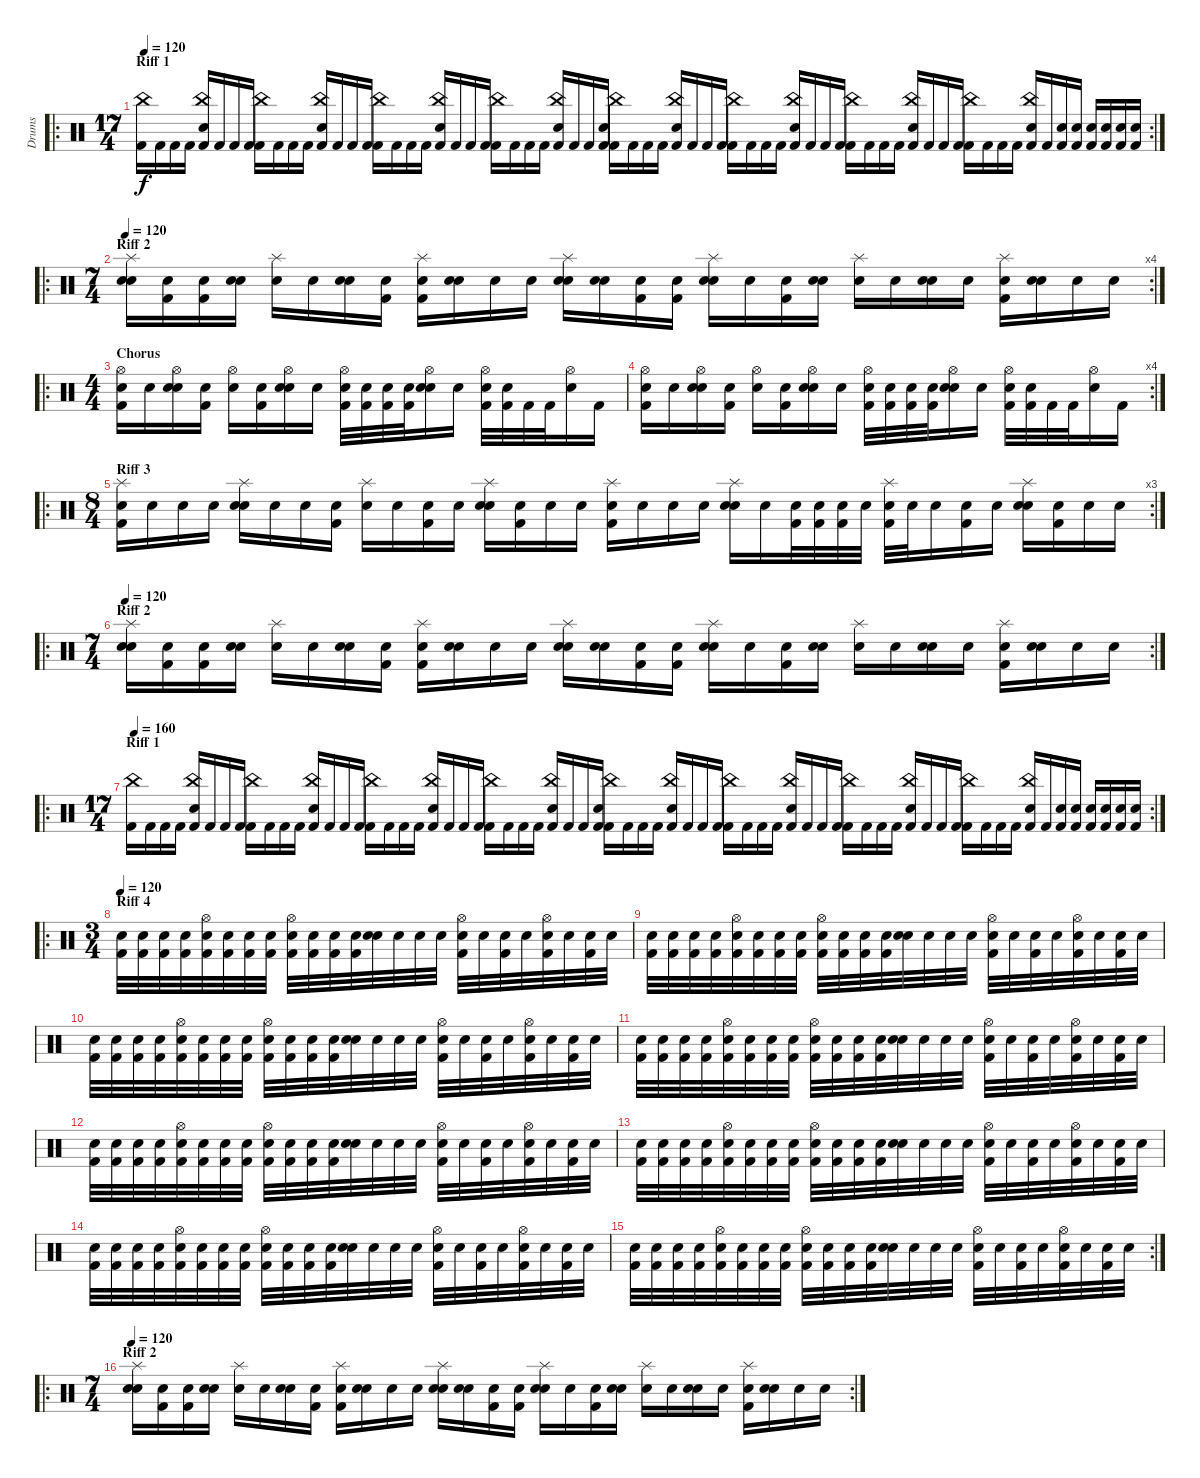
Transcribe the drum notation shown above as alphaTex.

\track ("Drums" "Drums") {instrument percussion}
\staff {score}
\articulation defaults
\ro
\rc 2
\ts (17 4)
\section ("" "Riff 1")
\tempo 120
\tempo 160
\tempo 120
\clef neutral
\ks c
("Kick (hit) 2" "China (hit)").16{dy f} "Kick (hit) 2".16 "Kick (hit) 2".16 "Kick (hit) 2".16 ("Kick (hit) 2" "Snare (hit) 2" "China (hit)").16 "Kick (hit) 2".16 "Kick (hit) 2".16 "Kick (hit) 2".16 ("Kick (hit) 2" "China (hit)").16 "Kick (hit) 2".16 "Kick (hit) 2".16 "Kick (hit) 2".16 ("Kick (hit) 2" "Snare (hit) 2" "China (hit)").16 "Kick (hit) 2".16 "Kick (hit) 2".16 "Kick (hit) 2".16 ("Kick (hit) 2" "China (hit)").16 "Kick (hit) 2".16 "Kick (hit) 2".16 "Kick (hit) 2".16 ("Kick (hit) 2" "Snare (hit) 2" "China (hit)").16 "Kick (hit) 2".16 "Kick (hit) 2".16 "Kick (hit) 2".16 ("Kick (hit) 2" "China (hit)").16 "Kick (hit) 2".16 "Kick (hit) 2".16 "Kick (hit) 2".16 ("Kick (hit) 2" "Snare (hit) 2" "China (hit)").16 "Kick (hit) 2".16 "Kick (hit) 2".16 ("Kick (hit) 2" "Snare (hit) 2").16 ("Kick (hit) 2" "China (hit)").16 "Kick (hit) 2".16 "Kick (hit) 2".16 "Kick (hit) 2".16 ("Kick (hit) 2" "Snare (hit) 2" "China (hit)").16 "Kick (hit) 2".16 "Kick (hit) 2".16 "Kick (hit) 2".16 ("Kick (hit) 2" "China (hit)").16 "Kick (hit) 2".16 "Kick (hit) 2".16 "Kick (hit) 2".16 ("Kick (hit) 2" "Snare (hit) 2" "China (hit)").16 "Kick (hit) 2".16 "Kick (hit) 2".16 "Kick (hit) 2".16 ("Kick (hit) 2" "China (hit)").16 "Kick (hit) 2".16 "Kick (hit) 2".16 "Kick (hit) 2".16 ("Kick (hit) 2" "Snare (hit) 2" "China (hit)").16 "Kick (hit) 2".16 "Kick (hit) 2".16 "Kick (hit) 2".16 ("Kick (hit) 2" "China (hit)").16 "Kick (hit) 2".16 "Kick (hit) 2".16 "Kick (hit) 2".16 ("Kick (hit) 2" "Snare (hit) 2" "China (hit)").16 "Kick (hit) 2".16 ("Kick (hit) 2" "Snare (hit) 2").16 ("Kick (hit) 2" "Snare (hit) 2").16 ("Kick (hit) 2" "Snare (hit) 2").16 ("Kick (hit) 2" "Snare (hit) 2").16 ("Kick (hit) 2" "Snare (hit) 2").16 ("Kick (hit) 2" "Snare (hit) 2").16 |
\ro
\rc 4
\ts (7 4)
\section ("" "Riff 2")
\tempo 120
("Snare (hit)" "Splash (hit)" "Snare (hit) 2").16 ("Snare (hit)" "Kick (hit) 2").16 ("Snare (hit)" "Kick (hit) 2").16 ("Snare (hit)" "Snare (hit) 2").16 ("Snare (hit)" "Splash (hit)").16 "Snare (hit)".16 ("Snare (hit)" "Snare (hit) 2").16 ("Snare (hit)" "Kick (hit) 2").16 ("Snare (hit)" "Splash (hit)" "Kick (hit) 2").16 ("Snare (hit)" "Snare (hit) 2").16 "Snare (hit)".16 "Snare (hit)".16 ("Snare (hit)" "Splash (hit)" "Snare (hit) 2").16 ("Snare (hit)" "Snare (hit) 2").16 ("Snare (hit)" "Kick (hit) 2").16 ("Snare (hit)" "Kick (hit) 2").16 ("Snare (hit)" "Splash (hit)" "Snare (hit) 2").16 "Snare (hit)".16 ("Snare (hit)" "Kick (hit) 2").16 ("Snare (hit)" "Snare (hit) 2").16 ("Snare (hit)" "Splash (hit)").16 "Snare (hit)".16 ("Snare (hit)" "Snare (hit) 2").16 "Snare (hit)".16 ("Snare (hit)" "Splash (hit)" "Kick (hit) 2").16 ("Snare (hit)" "Snare (hit) 2").16 "Snare (hit)".16 "Snare (hit)".16 |
\ro
\ts (4 4)
\section ("" "Chorus")
("Snare (hit)" "Kick (hit) 2" "Hi-Hat (open)").16 "Snare (hit)".16 ("Snare (hit)" "Snare (hit) 2" "Hi-Hat (open)").16 ("Snare (hit)" "Kick (hit) 2").16 ("Snare (hit)" "Hi-Hat (open)").16 ("Snare (hit)" "Kick (hit) 2").16 ("Snare (hit)" "Snare (hit) 2" "Hi-Hat (open)").16 "Snare (hit)".16 ("Snare (hit)" "Kick (hit) 2" "Hi-Hat (open)").32 ("Snare (hit)" "Kick (hit) 2").32 ("Snare (hit)" "Kick (hit) 2").32 ("Snare (hit)" "Kick (hit) 2").32 ("Snare (hit)" "Snare (hit) 2" "Hi-Hat (open)").16 "Snare (hit)".16 ("Snare (hit)" "Kick (hit) 2" "Hi-Hat (open)").32 ("Snare (hit)" "Kick (hit) 2").32 "Kick (hit) 2".32 "Kick (hit) 2".32 ("Snare (hit) 2" "Hi-Hat (open)").16 "Kick (hit) 2".16 |
\rc 4
("Snare (hit)" "Kick (hit) 2" "Hi-Hat (open)").16 "Snare (hit)".16 ("Snare (hit)" "Snare (hit) 2" "Hi-Hat (open)").16 ("Snare (hit)" "Kick (hit) 2").16 ("Snare (hit)" "Hi-Hat (open)").16 ("Snare (hit)" "Kick (hit) 2").16 ("Snare (hit)" "Snare (hit) 2" "Hi-Hat (open)").16 "Snare (hit)".16 ("Snare (hit)" "Kick (hit) 2" "Hi-Hat (open)").32 ("Snare (hit)" "Kick (hit) 2").32 ("Snare (hit)" "Kick (hit) 2").32 ("Snare (hit)" "Kick (hit) 2").32 ("Snare (hit)" "Snare (hit) 2" "Hi-Hat (open)").16 "Snare (hit)".16 ("Snare (hit)" "Kick (hit) 2" "Hi-Hat (open)").32 ("Snare (hit)" "Kick (hit) 2").32 "Kick (hit) 2".32 "Kick (hit) 2".32 ("Snare (hit) 2" "Hi-Hat (open)").16 "Kick (hit) 2".16 |
\ro
\rc 3
\ts (8 4)
\section ("" "Riff 3")
("Snare (hit)" "Kick (hit) 2" "Splash (hit)").16 "Snare (hit)".16 "Snare (hit)".16 "Snare (hit)".16 ("Snare (hit)" "Snare (hit) 2" "Splash (hit)").16 "Snare (hit)".16 "Snare (hit)".16 ("Snare (hit)" "Kick (hit) 2").16 ("Snare (hit)" "Splash (hit)").16 "Snare (hit)".16 ("Snare (hit)" "Kick (hit) 2").16 "Snare (hit)".16 ("Snare (hit)" "Snare (hit) 2" "Splash (hit)").16 ("Snare (hit)" "Kick (hit) 2").16 "Snare (hit)".16 "Snare (hit)".16 ("Snare (hit)" "Kick (hit) 2" "Splash (hit)").16 "Snare (hit)".16 "Snare (hit)".16 "Snare (hit)".16 ("Snare (hit)" "Snare (hit) 2" "Splash (hit)").16 "Snare (hit)".16 ("Snare (hit)" "Kick (hit) 2").32 ("Snare (hit)" "Kick (hit) 2").32 ("Snare (hit)" "Kick (hit) 2").32 "Snare (hit)".32 ("Snare (hit)" "Kick (hit) 2" "Splash (hit)").32 "Snare (hit)".32 "Snare (hit)".16 ("Snare (hit)" "Kick (hit) 2").16 "Snare (hit)".16 ("Snare (hit)" "Snare (hit) 2" "Splash (hit)").16 ("Snare (hit)" "Kick (hit) 2").16 "Snare (hit)".16 "Snare (hit)".16 |
\ro
\rc 2
\ts (7 4)
\section ("" "Riff 2")
\tempo 120
("Snare (hit)" "Splash (hit)" "Snare (hit) 2").16 ("Snare (hit)" "Kick (hit) 2").16 ("Snare (hit)" "Kick (hit) 2").16 ("Snare (hit)" "Snare (hit) 2").16 ("Snare (hit)" "Splash (hit)").16 "Snare (hit)".16 ("Snare (hit)" "Snare (hit) 2").16 ("Snare (hit)" "Kick (hit) 2").16 ("Snare (hit)" "Splash (hit)" "Kick (hit) 2").16 ("Snare (hit)" "Snare (hit) 2").16 "Snare (hit)".16 "Snare (hit)".16 ("Snare (hit)" "Splash (hit)" "Snare (hit) 2").16 ("Snare (hit)" "Snare (hit) 2").16 ("Snare (hit)" "Kick (hit) 2").16 ("Snare (hit)" "Kick (hit) 2").16 ("Snare (hit)" "Splash (hit)" "Snare (hit) 2").16 "Snare (hit)".16 ("Snare (hit)" "Kick (hit) 2").16 ("Snare (hit)" "Snare (hit) 2").16 ("Snare (hit)" "Splash (hit)").16 "Snare (hit)".16 ("Snare (hit)" "Snare (hit) 2").16 "Snare (hit)".16 ("Snare (hit)" "Splash (hit)" "Kick (hit) 2").16 ("Snare (hit)" "Snare (hit) 2").16 "Snare (hit)".16 "Snare (hit)".16 |
\ro
\rc 2
\ts (17 4)
\section ("" "Riff 1")
\tempo 160
("Kick (hit) 2" "China (hit)").16 "Kick (hit) 2".16 "Kick (hit) 2".16 "Kick (hit) 2".16 ("Kick (hit) 2" "Snare (hit) 2" "China (hit)").16 "Kick (hit) 2".16 "Kick (hit) 2".16 "Kick (hit) 2".16 ("Kick (hit) 2" "China (hit)").16 "Kick (hit) 2".16 "Kick (hit) 2".16 "Kick (hit) 2".16 ("Kick (hit) 2" "Snare (hit) 2" "China (hit)").16 "Kick (hit) 2".16 "Kick (hit) 2".16 "Kick (hit) 2".16 ("Kick (hit) 2" "China (hit)").16 "Kick (hit) 2".16 "Kick (hit) 2".16 "Kick (hit) 2".16 ("Kick (hit) 2" "Snare (hit) 2" "China (hit)").16 "Kick (hit) 2".16 "Kick (hit) 2".16 "Kick (hit) 2".16 ("Kick (hit) 2" "China (hit)").16 "Kick (hit) 2".16 "Kick (hit) 2".16 "Kick (hit) 2".16 ("Kick (hit) 2" "Snare (hit) 2" "China (hit)").16 "Kick (hit) 2".16 "Kick (hit) 2".16 ("Kick (hit) 2" "Snare (hit) 2").16 ("Kick (hit) 2" "China (hit)").16 "Kick (hit) 2".16 "Kick (hit) 2".16 "Kick (hit) 2".16 ("Kick (hit) 2" "Snare (hit) 2" "China (hit)").16 "Kick (hit) 2".16 "Kick (hit) 2".16 "Kick (hit) 2".16 ("Kick (hit) 2" "China (hit)").16 "Kick (hit) 2".16 "Kick (hit) 2".16 "Kick (hit) 2".16 ("Kick (hit) 2" "Snare (hit) 2" "China (hit)").16 "Kick (hit) 2".16 "Kick (hit) 2".16 "Kick (hit) 2".16 ("Kick (hit) 2" "China (hit)").16 "Kick (hit) 2".16 "Kick (hit) 2".16 "Kick (hit) 2".16 ("Kick (hit) 2" "Snare (hit) 2" "China (hit)").16 "Kick (hit) 2".16 "Kick (hit) 2".16 "Kick (hit) 2".16 ("Kick (hit) 2" "China (hit)").16 "Kick (hit) 2".16 "Kick (hit) 2".16 "Kick (hit) 2".16 ("Kick (hit) 2" "Snare (hit) 2" "China (hit)").16 "Kick (hit) 2".16 ("Kick (hit) 2" "Snare (hit) 2").16 ("Kick (hit) 2" "Snare (hit) 2").16 ("Kick (hit) 2" "Snare (hit) 2").16 ("Kick (hit) 2" "Snare (hit) 2").16 ("Kick (hit) 2" "Snare (hit) 2").16 ("Kick (hit) 2" "Snare (hit) 2").16 |
\ro
\ts (3 4)
\section ("" "Riff 4")
\tempo 120
("Snare (hit)" "Kick (hit) 2").32 ("Snare (hit)" "Kick (hit) 2").32 ("Snare (hit)" "Kick (hit) 2").32 ("Snare (hit)" "Kick (hit) 2").32 ("Snare (hit)" "Kick (hit) 2" "Hi-Hat (open)").32 ("Snare (hit)" "Kick (hit) 2").32 ("Snare (hit)" "Kick (hit) 2").32 ("Snare (hit)" "Kick (hit) 2").32 ("Snare (hit)" "Kick (hit) 2" "Hi-Hat (open)").32 ("Snare (hit)" "Kick (hit) 2").32 ("Snare (hit)" "Kick (hit) 2").32 ("Snare (hit)" "Kick (hit) 2").32 ("Snare (hit)" "Snare (hit) 2").32 "Snare (hit)".32 "Snare (hit)".32 "Snare (hit)".32 ("Snare (hit)" "Kick (hit) 2" "Hi-Hat (open)").32 "Snare (hit)".32 ("Snare (hit)" "Kick (hit) 2").32 "Snare (hit)".32 ("Snare (hit)" "Kick (hit) 2" "Hi-Hat (open)").32 "Snare (hit)".32 ("Snare (hit)" "Kick (hit) 2").32 "Snare (hit)".32 |
("Snare (hit)" "Kick (hit) 2").32 ("Snare (hit)" "Kick (hit) 2").32 ("Snare (hit)" "Kick (hit) 2").32 ("Snare (hit)" "Kick (hit) 2").32 ("Snare (hit)" "Kick (hit) 2" "Hi-Hat (open)").32 ("Snare (hit)" "Kick (hit) 2").32 ("Snare (hit)" "Kick (hit) 2").32 ("Snare (hit)" "Kick (hit) 2").32 ("Snare (hit)" "Kick (hit) 2" "Hi-Hat (open)").32 ("Snare (hit)" "Kick (hit) 2").32 ("Snare (hit)" "Kick (hit) 2").32 ("Snare (hit)" "Kick (hit) 2").32 ("Snare (hit)" "Snare (hit) 2").32 "Snare (hit)".32 "Snare (hit)".32 "Snare (hit)".32 ("Snare (hit)" "Kick (hit) 2" "Hi-Hat (open)").32 "Snare (hit)".32 ("Snare (hit)" "Kick (hit) 2").32 "Snare (hit)".32 ("Snare (hit)" "Kick (hit) 2" "Hi-Hat (open)").32 "Snare (hit)".32 ("Snare (hit)" "Kick (hit) 2").32 "Snare (hit)".32 |
("Snare (hit)" "Kick (hit) 2").32 ("Snare (hit)" "Kick (hit) 2").32 ("Snare (hit)" "Kick (hit) 2").32 ("Snare (hit)" "Kick (hit) 2").32 ("Snare (hit)" "Kick (hit) 2" "Hi-Hat (open)").32 ("Snare (hit)" "Kick (hit) 2").32 ("Snare (hit)" "Kick (hit) 2").32 ("Snare (hit)" "Kick (hit) 2").32 ("Snare (hit)" "Kick (hit) 2" "Hi-Hat (open)").32 ("Snare (hit)" "Kick (hit) 2").32 ("Snare (hit)" "Kick (hit) 2").32 ("Snare (hit)" "Kick (hit) 2").32 ("Snare (hit)" "Snare (hit) 2").32 "Snare (hit)".32 "Snare (hit)".32 "Snare (hit)".32 ("Snare (hit)" "Kick (hit) 2" "Hi-Hat (open)").32 "Snare (hit)".32 ("Snare (hit)" "Kick (hit) 2").32 "Snare (hit)".32 ("Snare (hit)" "Kick (hit) 2" "Hi-Hat (open)").32 "Snare (hit)".32 ("Snare (hit)" "Kick (hit) 2").32 "Snare (hit)".32 |
("Snare (hit)" "Kick (hit) 2").32 ("Snare (hit)" "Kick (hit) 2").32 ("Snare (hit)" "Kick (hit) 2").32 ("Snare (hit)" "Kick (hit) 2").32 ("Snare (hit)" "Kick (hit) 2" "Hi-Hat (open)").32 ("Snare (hit)" "Kick (hit) 2").32 ("Snare (hit)" "Kick (hit) 2").32 ("Snare (hit)" "Kick (hit) 2").32 ("Snare (hit)" "Kick (hit) 2" "Hi-Hat (open)").32 ("Snare (hit)" "Kick (hit) 2").32 ("Snare (hit)" "Kick (hit) 2").32 ("Snare (hit)" "Kick (hit) 2").32 ("Snare (hit)" "Snare (hit) 2").32 "Snare (hit)".32 "Snare (hit)".32 "Snare (hit)".32 ("Snare (hit)" "Kick (hit) 2" "Hi-Hat (open)").32 "Snare (hit)".32 ("Snare (hit)" "Kick (hit) 2").32 "Snare (hit)".32 ("Snare (hit)" "Kick (hit) 2" "Hi-Hat (open)").32 "Snare (hit)".32 ("Snare (hit)" "Kick (hit) 2").32 "Snare (hit)".32 |
("Snare (hit)" "Kick (hit) 2").32 ("Snare (hit)" "Kick (hit) 2").32 ("Snare (hit)" "Kick (hit) 2").32 ("Snare (hit)" "Kick (hit) 2").32 ("Snare (hit)" "Kick (hit) 2" "Hi-Hat (open)").32 ("Snare (hit)" "Kick (hit) 2").32 ("Snare (hit)" "Kick (hit) 2").32 ("Snare (hit)" "Kick (hit) 2").32 ("Snare (hit)" "Kick (hit) 2" "Hi-Hat (open)").32 ("Snare (hit)" "Kick (hit) 2").32 ("Snare (hit)" "Kick (hit) 2").32 ("Snare (hit)" "Kick (hit) 2").32 ("Snare (hit)" "Snare (hit) 2").32 "Snare (hit)".32 "Snare (hit)".32 "Snare (hit)".32 ("Snare (hit)" "Kick (hit) 2" "Hi-Hat (open)").32 "Snare (hit)".32 ("Snare (hit)" "Kick (hit) 2").32 "Snare (hit)".32 ("Snare (hit)" "Kick (hit) 2" "Hi-Hat (open)").32 "Snare (hit)".32 ("Snare (hit)" "Kick (hit) 2").32 "Snare (hit)".32 |
("Snare (hit)" "Kick (hit) 2").32 ("Snare (hit)" "Kick (hit) 2").32 ("Snare (hit)" "Kick (hit) 2").32 ("Snare (hit)" "Kick (hit) 2").32 ("Snare (hit)" "Kick (hit) 2" "Hi-Hat (open)").32 ("Snare (hit)" "Kick (hit) 2").32 ("Snare (hit)" "Kick (hit) 2").32 ("Snare (hit)" "Kick (hit) 2").32 ("Snare (hit)" "Kick (hit) 2" "Hi-Hat (open)").32 ("Snare (hit)" "Kick (hit) 2").32 ("Snare (hit)" "Kick (hit) 2").32 ("Snare (hit)" "Kick (hit) 2").32 ("Snare (hit)" "Snare (hit) 2").32 "Snare (hit)".32 "Snare (hit)".32 "Snare (hit)".32 ("Snare (hit)" "Kick (hit) 2" "Hi-Hat (open)").32 "Snare (hit)".32 ("Snare (hit)" "Kick (hit) 2").32 "Snare (hit)".32 ("Snare (hit)" "Kick (hit) 2" "Hi-Hat (open)").32 "Snare (hit)".32 ("Snare (hit)" "Kick (hit) 2").32 "Snare (hit)".32 |
("Snare (hit)" "Kick (hit) 2").32 ("Snare (hit)" "Kick (hit) 2").32 ("Snare (hit)" "Kick (hit) 2").32 ("Snare (hit)" "Kick (hit) 2").32 ("Snare (hit)" "Kick (hit) 2" "Hi-Hat (open)").32 ("Snare (hit)" "Kick (hit) 2").32 ("Snare (hit)" "Kick (hit) 2").32 ("Snare (hit)" "Kick (hit) 2").32 ("Snare (hit)" "Kick (hit) 2" "Hi-Hat (open)").32 ("Snare (hit)" "Kick (hit) 2").32 ("Snare (hit)" "Kick (hit) 2").32 ("Snare (hit)" "Kick (hit) 2").32 ("Snare (hit)" "Snare (hit) 2").32 "Snare (hit)".32 "Snare (hit)".32 "Snare (hit)".32 ("Snare (hit)" "Kick (hit) 2" "Hi-Hat (open)").32 "Snare (hit)".32 ("Snare (hit)" "Kick (hit) 2").32 "Snare (hit)".32 ("Snare (hit)" "Kick (hit) 2" "Hi-Hat (open)").32 "Snare (hit)".32 ("Snare (hit)" "Kick (hit) 2").32 "Snare (hit)".32 |
\rc 2
("Snare (hit)" "Kick (hit) 2").32 ("Snare (hit)" "Kick (hit) 2").32 ("Snare (hit)" "Kick (hit) 2").32 ("Snare (hit)" "Kick (hit) 2").32 ("Snare (hit)" "Kick (hit) 2" "Hi-Hat (open)").32 ("Snare (hit)" "Kick (hit) 2").32 ("Snare (hit)" "Kick (hit) 2").32 ("Snare (hit)" "Kick (hit) 2").32 ("Snare (hit)" "Kick (hit) 2" "Hi-Hat (open)").32 ("Snare (hit)" "Kick (hit) 2").32 ("Snare (hit)" "Kick (hit) 2").32 ("Snare (hit)" "Kick (hit) 2").32 ("Snare (hit)" "Snare (hit) 2").32 "Snare (hit)".32 "Snare (hit)".32 "Snare (hit)".32 ("Snare (hit)" "Kick (hit) 2" "Hi-Hat (open)").32 "Snare (hit)".32 ("Snare (hit)" "Kick (hit) 2").32 "Snare (hit)".32 ("Snare (hit)" "Kick (hit) 2" "Hi-Hat (open)").32 "Snare (hit)".32 ("Snare (hit)" "Kick (hit) 2").32 "Snare (hit)".32 |
\ro
\rc 2
\ts (7 4)
\section ("" "Riff 2")
\tempo 120
("Snare (hit)" "Splash (hit)" "Snare (hit) 2").16 ("Snare (hit)" "Kick (hit) 2").16 ("Snare (hit)" "Kick (hit) 2").16 ("Snare (hit)" "Snare (hit) 2").16 ("Snare (hit)" "Splash (hit)").16 "Snare (hit)".16 ("Snare (hit)" "Snare (hit) 2").16 ("Snare (hit)" "Kick (hit) 2").16 ("Snare (hit)" "Splash (hit)" "Kick (hit) 2").16 ("Snare (hit)" "Snare (hit) 2").16 "Snare (hit)".16 "Snare (hit)".16 ("Snare (hit)" "Splash (hit)" "Snare (hit) 2").16 ("Snare (hit)" "Snare (hit) 2").16 ("Snare (hit)" "Kick (hit) 2").16 ("Snare (hit)" "Kick (hit) 2").16 ("Snare (hit)" "Splash (hit)" "Snare (hit) 2").16 "Snare (hit)".16 ("Snare (hit)" "Kick (hit) 2").16 ("Snare (hit)" "Snare (hit) 2").16 ("Snare (hit)" "Splash (hit)").16 "Snare (hit)".16 ("Snare (hit)" "Snare (hit) 2").16 "Snare (hit)".16 ("Snare (hit)" "Splash (hit)" "Kick (hit) 2").16 ("Snare (hit)" "Snare (hit) 2").16 "Snare (hit)".16 "Snare (hit)".16
